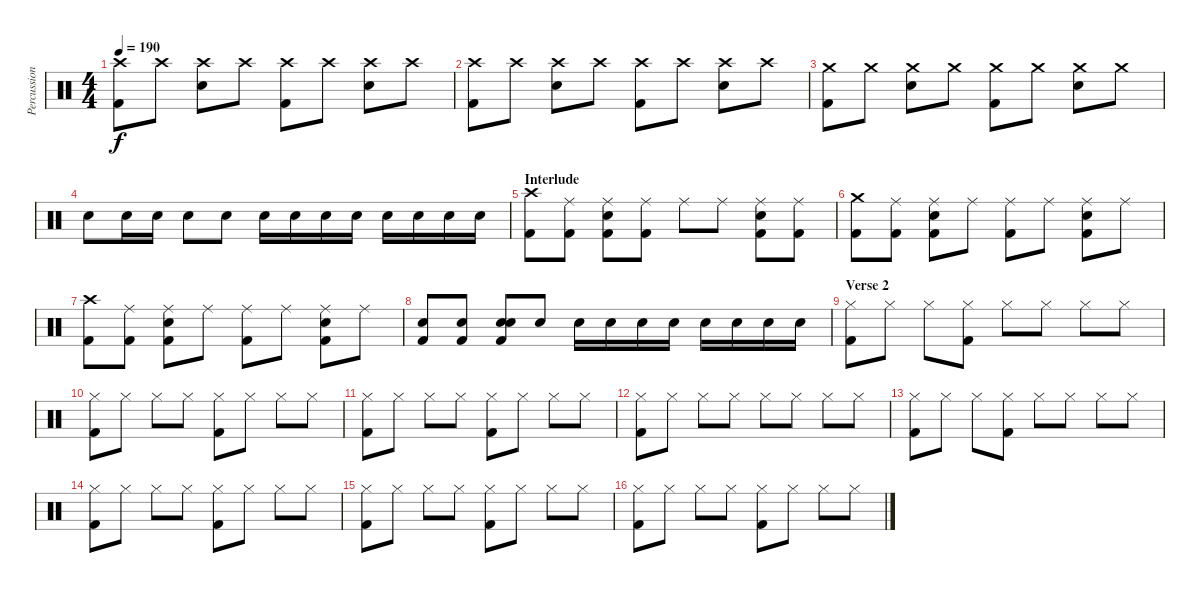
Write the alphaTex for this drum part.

\track ("Percussion" "Percussion") {instrument percussion}
\staff {score}
\articulation defaults
\ts (4 4)
\tempo 190
\clef neutral
\ks c
("Crash high (hit)" "Kick (hit) 2").8{dy f} "Crash high (hit)".8 ("Crash high (hit)" "Electric Snare (hit)").8 "Crash high (hit)".8 ("Crash high (hit)" "Kick (hit) 2").8 "Crash high (hit)".8 ("Crash high (hit)" "Electric Snare (hit)").8 "Crash high (hit)".8 |
("Crash high (hit)" "Kick (hit) 2").8 "Crash high (hit)".8 ("Crash high (hit)" "Electric Snare (hit)").8 "Crash high (hit)".8 ("Crash high (hit)" "Kick (hit) 2").8 "Crash high (hit)".8 ("Crash high (hit)" "Electric Snare (hit)").8 "Crash high (hit)".8 |
("Crash medium (hit)" "Kick (hit) 2").8 "Crash medium (hit)".8 ("Crash medium (hit)" "Electric Snare (hit)").8 "Crash medium (hit)".8 ("Crash medium (hit)" "Kick (hit) 2").8 "Crash medium (hit)".8 ("Crash medium (hit)" "Electric Snare (hit)").8 "Crash medium (hit)".8 |
"Electric Snare (hit)".8 "Electric Snare (hit)".16 "Electric Snare (hit)".16 "Electric Snare (hit)".8 "Electric Snare (hit)".8 "Electric Snare (hit)".16 "Electric Snare (hit)".16 "Electric Snare (hit)".16 "Electric Snare (hit)".16 "Electric Snare (hit)".16 "Electric Snare (hit)".16 "Electric Snare (hit)".16 "Electric Snare (hit)".16 |
\section ("" "Interlude")
("Crash high (hit)" "Kick (hit) 2").8 ("Ride (middle)" "Kick (hit) 2").8 ("Electric Snare (hit)" "Ride (middle)" "Kick (hit) 2").8 ("Ride (middle)" "Kick (hit) 2").8 "Ride (middle)".8 "Ride (middle)".8 ("Kick (hit) 2" "Ride (middle)" "Electric Snare (hit)").8 ("Ride (middle)" "Kick (hit) 2").8 |
("Crash medium (hit)" "Kick (hit) 2").8 ("Ride (middle)" "Kick (hit) 2").8 ("Electric Snare (hit)" "Ride (middle)" "Kick (hit) 2").8 "Ride (middle)".8 ("Ride (middle)" "Kick (hit) 2").8 "Ride (middle)".8 ("Kick (hit) 2" "Ride (middle)" "Electric Snare (hit)").8 "Ride (middle)".8 |
("Crash high (hit)" "Kick (hit) 2").8 ("Ride (middle)" "Kick (hit) 2").8 ("Electric Snare (hit)" "Ride (middle)" "Kick (hit) 2").8 "Ride (middle)".8 ("Ride (middle)" "Kick (hit) 2").8 "Ride (middle)".8 ("Kick (hit) 2" "Ride (middle)" "Electric Snare (hit)").8 "Ride (middle)".8 |
("Electric Snare (hit)" "Kick (hit) 2").8 ("Electric Snare (hit)" "Kick (hit) 2").8 ("Electric Snare (hit)" "Electric Snare (hit)" "Kick (hit) 2").8 "Electric Snare (hit)".8 "Electric Snare (hit)".16 "Electric Snare (hit)".16 "Electric Snare (hit)".16 "Electric Snare (hit)".16 "Electric Snare (hit)".16 "Electric Snare (hit)".16 "Electric Snare (hit)".16 "Electric Snare (hit)".16 |
\section ("" "Verse 2")
("Kick (hit) 2" "Hi-Hat (closed)").8 "Hi-Hat (closed)".8 "Hi-Hat (closed)".8 ("Kick (hit) 2" "Hi-Hat (closed)").8 "Hi-Hat (closed)".8 "Hi-Hat (closed)".8 "Hi-Hat (closed)".8 "Hi-Hat (closed)".8 |
("Kick (hit) 2" "Hi-Hat (closed)").8 "Hi-Hat (closed)".8 "Hi-Hat (closed)".8 "Hi-Hat (closed)".8 ("Kick (hit) 2" "Hi-Hat (closed)").8 "Hi-Hat (closed)".8 "Hi-Hat (closed)".8 "Hi-Hat (closed)".8 |
("Kick (hit) 2" "Hi-Hat (closed)").8 "Hi-Hat (closed)".8 "Hi-Hat (closed)".8 "Hi-Hat (closed)".8 ("Kick (hit) 2" "Hi-Hat (closed)").8 "Hi-Hat (closed)".8 "Hi-Hat (closed)".8 "Hi-Hat (closed)".8 |
("Kick (hit) 2" "Hi-Hat (closed)").8 "Hi-Hat (closed)".8 "Hi-Hat (closed)".8 "Hi-Hat (closed)".8 "Hi-Hat (closed)".8 "Hi-Hat (closed)".8 "Hi-Hat (closed)".8 "Hi-Hat (closed)".8 |
("Kick (hit) 2" "Hi-Hat (closed)").8 "Hi-Hat (closed)".8 "Hi-Hat (closed)".8 ("Kick (hit) 2" "Hi-Hat (closed)").8 "Hi-Hat (closed)".8 "Hi-Hat (closed)".8 "Hi-Hat (closed)".8 "Hi-Hat (closed)".8 |
("Kick (hit) 2" "Hi-Hat (closed)").8 "Hi-Hat (closed)".8 "Hi-Hat (closed)".8 "Hi-Hat (closed)".8 ("Kick (hit) 2" "Hi-Hat (closed)").8 "Hi-Hat (closed)".8 "Hi-Hat (closed)".8 "Hi-Hat (closed)".8 |
("Kick (hit) 2" "Hi-Hat (closed)").8 "Hi-Hat (closed)".8 "Hi-Hat (closed)".8 "Hi-Hat (closed)".8 ("Kick (hit) 2" "Hi-Hat (closed)").8 "Hi-Hat (closed)".8 "Hi-Hat (closed)".8 "Hi-Hat (closed)".8 |
("Kick (hit) 2" "Hi-Hat (closed)").8 "Hi-Hat (closed)".8 "Hi-Hat (closed)".8 "Hi-Hat (closed)".8 ("Kick (hit) 2" "Hi-Hat (closed)").8 "Hi-Hat (closed)".8 "Hi-Hat (closed)".8 "Hi-Hat (closed)".8
